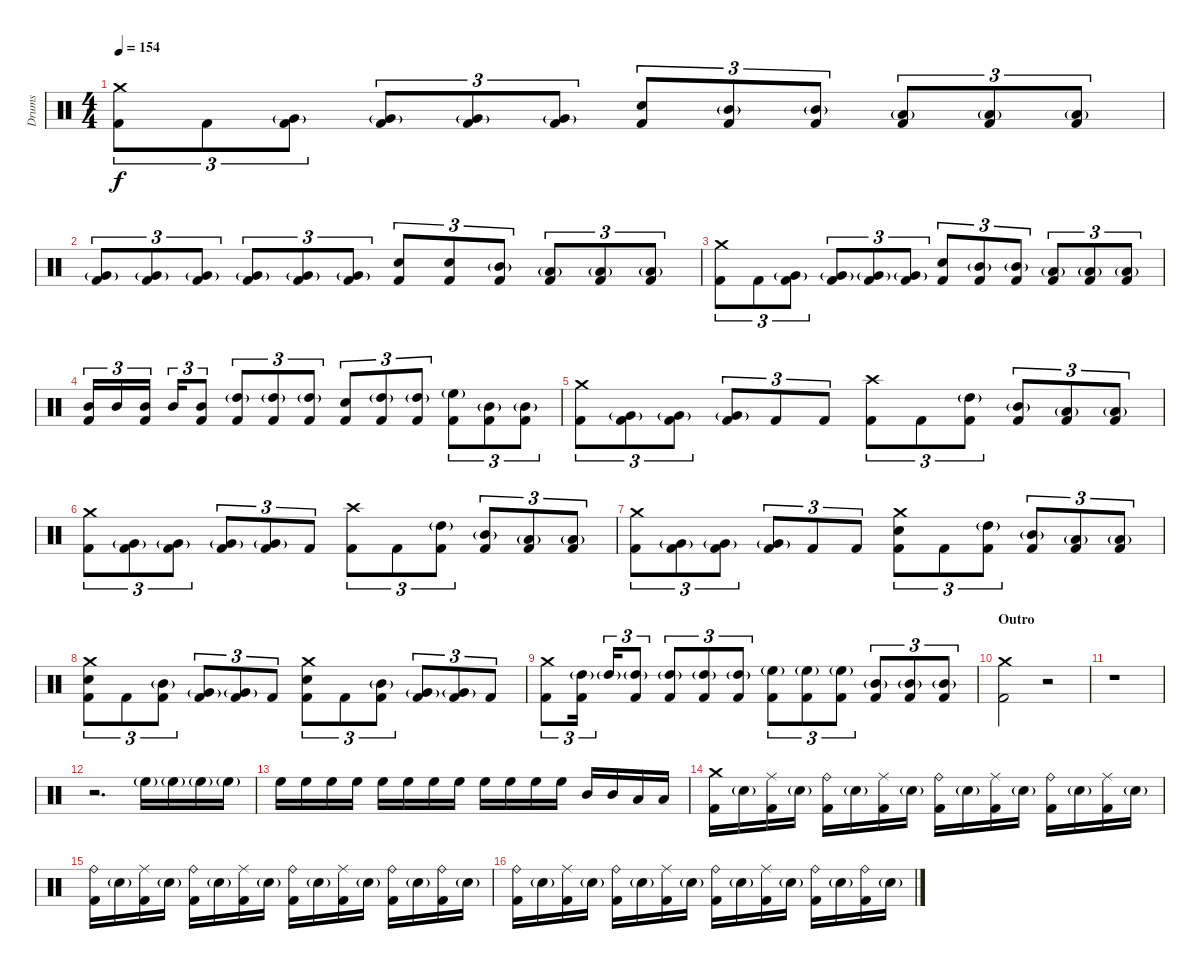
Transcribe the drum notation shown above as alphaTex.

\track ("Drums" "Drums") {instrument percussion}
\staff {score}
\articulation defaults
\ts (4 4)
\tempo 154
\clef neutral
\ks c
("Crash medium (hit)" "Kick (hit) 2").8{tu (3 2) dy f} "Kick (hit) 2".8{tu (3 2)} ("Very Low Tom (hit)"{g} "Kick (hit) 2").8{tu (3 2)} ("Very Low Tom (hit)"{g} "Kick (hit) 2").8{tu (3 2)} ("Very Low Tom (hit)"{g} "Kick (hit) 2").8{tu (3 2)} ("Very Low Tom (hit)"{g} "Kick (hit) 2").8{tu (3 2)} ("Snare (hit) 2" "Kick (hit) 2").8{tu (3 2)} ("Mid Tom (hit)"{g} "Kick (hit) 2").8{tu (3 2)} ("Mid Tom (hit)"{g} "Kick (hit) 2").8{tu (3 2)} ("Low Tom (hit)"{g} "Kick (hit) 2").8{tu (3 2)} ("Low Tom (hit)"{g} "Kick (hit) 2").8{tu (3 2)} ("Low Tom (hit)"{g} "Kick (hit) 2").8{tu (3 2)} |
("Very Low Tom (hit)"{g} "Kick (hit) 2").8{tu (3 2)} ("Very Low Tom (hit)"{g} "Kick (hit) 2").8{tu (3 2)} ("Very Low Tom (hit)"{g} "Kick (hit) 2").8{tu (3 2)} ("Very Low Tom (hit)"{g} "Kick (hit) 2").8{tu (3 2)} ("Very Low Tom (hit)"{g} "Kick (hit) 2").8{tu (3 2)} ("Very Low Tom (hit)"{g} "Kick (hit) 2").8{tu (3 2)} ("Snare (hit) 2" "Kick (hit) 2").8{tu (3 2)} ("Snare (hit) 2" "Kick (hit) 2").8{tu (3 2)} ("Mid Tom (hit)"{g} "Kick (hit) 2").8{tu (3 2)} ("Low Tom (hit)"{g} "Kick (hit) 2").8{tu (3 2)} ("Low Tom (hit)"{g} "Kick (hit) 2").8{tu (3 2)} ("Low Tom (hit)"{g} "Kick (hit) 2").8{tu (3 2)} |
("Crash medium (hit)" "Kick (hit) 2").8{tu (3 2)} "Kick (hit) 2".8{tu (3 2)} ("Very Low Tom (hit)"{g} "Kick (hit) 2").8{tu (3 2)} ("Very Low Tom (hit)"{g} "Kick (hit) 2").8{tu (3 2)} ("Very Low Tom (hit)"{g} "Kick (hit) 2").8{tu (3 2)} ("Very Low Tom (hit)"{g} "Kick (hit) 2").8{tu (3 2)} ("Snare (hit) 2" "Kick (hit) 2").8{tu (3 2)} ("Mid Tom (hit)"{g} "Kick (hit) 2").8{tu (3 2)} ("Mid Tom (hit)"{g} "Kick (hit) 2").8{tu (3 2)} ("Low Tom (hit)"{g} "Kick (hit) 2").8{tu (3 2)} ("Low Tom (hit)"{g} "Kick (hit) 2").8{tu (3 2)} ("Low Tom (hit)"{g} "Kick (hit) 2").8{tu (3 2)} |
("Mid Tom (hit)" "Kick (hit) 2").16{tu (3 2)} "Mid Tom (hit)".16{tu (3 2)} ("Mid Tom (hit)" "Kick (hit) 2").16{tu (3 2)} "Mid Tom (hit)".16{tu (3 2)} ("Mid Tom (hit)" "Kick (hit) 2").8{tu (3 2)} ("High Tom (hit)"{g} "Kick (hit) 2").8{tu (3 2)} ("High Tom (hit)"{g} "Kick (hit) 2").8{tu (3 2)} ("High Tom (hit)"{g} "Kick (hit) 2").8{tu (3 2)} ("Snare (hit) 2" "Kick (hit) 2").8{tu (3 2)} ("High Tom (hit)"{g} "Kick (hit) 2").8{tu (3 2)} ("High Tom (hit)"{g} "Kick (hit) 2").8{tu (3 2)} ("High Floor Tom (hit)"{g} "Kick (hit) 2").8{tu (3 2)} ("Mid Tom (hit)"{g} "Kick (hit) 2").8{tu (3 2)} ("Mid Tom (hit)"{g} "Kick (hit) 2").8{tu (3 2)} |
("Crash medium (hit)" "Kick (hit) 2").8{tu (3 2)} ("Very Low Tom (hit)"{g} "Kick (hit) 2").8{tu (3 2)} ("Very Low Tom (hit)"{g} "Kick (hit) 2").8{tu (3 2)} ("Very Low Tom (hit)"{g} "Kick (hit) 2").8{tu (3 2)} "Kick (hit) 2".8{tu (3 2)} "Kick (hit) 2".8{tu (3 2)} ("Crash high (hit)" "Kick (hit) 2").8{tu (3 2)} "Kick (hit) 2".8{tu (3 2)} ("High Tom (hit)"{g} "Kick (hit) 2").8{tu (3 2)} ("Mid Tom (hit)"{g} "Kick (hit) 2").8{tu (3 2)} ("Low Tom (hit)"{g} "Kick (hit) 2").8{tu (3 2)} ("Low Tom (hit)"{g} "Kick (hit) 2").8{tu (3 2)} |
("Crash medium (hit)" "Kick (hit) 2").8{tu (3 2)} ("Very Low Tom (hit)"{g} "Kick (hit) 2").8{tu (3 2)} ("Very Low Tom (hit)"{g} "Kick (hit) 2").8{tu (3 2)} ("Very Low Tom (hit)"{g} "Kick (hit) 2").8{tu (3 2)} ("Very Low Tom (hit)"{g} "Kick (hit) 2").8{tu (3 2)} "Kick (hit) 2".8{tu (3 2)} ("Crash high (hit)" "Kick (hit) 2").8{tu (3 2)} "Kick (hit) 2".8{tu (3 2)} ("High Tom (hit)"{g} "Kick (hit) 2").8{tu (3 2)} ("Mid Tom (hit)"{g} "Kick (hit) 2").8{tu (3 2)} ("Low Tom (hit)"{g} "Kick (hit) 2").8{tu (3 2)} ("Low Tom (hit)"{g} "Kick (hit) 2").8{tu (3 2)} |
("Crash medium (hit)" "Kick (hit) 2").8{tu (3 2)} ("Very Low Tom (hit)"{g} "Kick (hit) 2").8{tu (3 2)} ("Very Low Tom (hit)"{g} "Kick (hit) 2").8{tu (3 2)} ("Very Low Tom (hit)"{g} "Kick (hit) 2").8{tu (3 2)} "Kick (hit) 2".8{tu (3 2)} "Kick (hit) 2".8{tu (3 2)} ("Crash medium (hit)" "Snare (hit) 2" "Kick (hit) 2").8{tu (3 2)} "Kick (hit) 2".8{tu (3 2)} ("High Tom (hit)"{g} "Kick (hit) 2").8{tu (3 2)} ("Mid Tom (hit)"{g} "Kick (hit) 2").8{tu (3 2)} ("Low Tom (hit)"{g} "Kick (hit) 2").8{tu (3 2)} ("Low Tom (hit)"{g} "Kick (hit) 2").8{tu (3 2)} |
("Crash medium (hit)" "Snare (hit) 2" "Kick (hit) 2").8{tu (3 2)} "Kick (hit) 2".8{tu (3 2)} ("Mid Tom (hit)"{g} "Kick (hit) 2").8{tu (3 2)} ("Very Low Tom (hit)"{g} "Kick (hit) 2").8{tu (3 2)} ("Very Low Tom (hit)"{g} "Kick (hit) 2").8{tu (3 2)} "Kick (hit) 2".8{tu (3 2)} ("Crash medium (hit)" "Snare (hit) 2" "Kick (hit) 2").8{tu (3 2)} "Kick (hit) 2".8{tu (3 2)} ("Mid Tom (hit)"{g} "Kick (hit) 2").8{tu (3 2)} ("Very Low Tom (hit)"{g} "Kick (hit) 2").8{tu (3 2)} ("Very Low Tom (hit)"{g} "Kick (hit) 2").8{tu (3 2)} "Kick (hit) 2".8{tu (3 2)} |
("Crash medium (hit)" "Kick (hit) 2").8{tu (3 2)} ("High Tom (hit)"{g} "Kick (hit) 2").16{tu (3 2)} "High Tom (hit)"{g}.16{tu (3 2)} ("High Tom (hit)"{g} "Kick (hit) 2").8{tu (3 2)} ("High Tom (hit)"{g} "Kick (hit) 2").8{tu (3 2)} ("High Tom (hit)"{g} "Kick (hit) 2").8{tu (3 2)} ("High Tom (hit)"{g} "Kick (hit) 2").8{tu (3 2)} ("High Floor Tom (hit)"{g} "Kick (hit) 2").8{tu (3 2)} ("High Floor Tom (hit)"{g} "Kick (hit) 2").8{tu (3 2)} ("High Floor Tom (hit)"{g} "Kick (hit) 2").8{tu (3 2)} ("Mid Tom (hit)"{g} "Kick (hit) 2").8{tu (3 2)} ("Mid Tom (hit)"{g} "Kick (hit) 2").8{tu (3 2)} ("Mid Tom (hit)"{g} "Kick (hit) 2").8{tu (3 2)} |
\section ("" "Outro")
("Crash medium (hit)" "Kick (hit) 2").2 r.2 |
r.1 |
r.2{d} "High Floor Tom (hit)"{g}.16 "High Floor Tom (hit)"{g}.16 "High Floor Tom (hit)"{g}.16 "High Floor Tom (hit)"{g}.16 |
"High Floor Tom (hit)".16 "High Floor Tom (hit)".16 "High Floor Tom (hit)".16 "High Floor Tom (hit)".16 "High Floor Tom (hit)".16 "High Floor Tom (hit)".16 "High Floor Tom (hit)".16 "High Floor Tom (hit)".16 "High Floor Tom (hit)".16 "High Floor Tom (hit)".16 "High Floor Tom (hit)".16 "High Floor Tom (hit)".16 "Mid Tom (hit)".16 "Mid Tom (hit)".16 "Low Tom (hit)".16 "Low Tom (hit)".16 |
("Crash medium (hit)" "Kick (hit) 2").16 "Snare (hit) 2"{g}.16 ("Ride (middle)" "Kick (hit) 2").16 "Snare (hit) 2"{g}.16 ("Ride (bell)" "Kick (hit) 2").16 "Snare (hit) 2"{g}.16 ("Ride (middle)" "Kick (hit) 2").16 "Snare (hit) 2"{g}.16 ("Ride (bell)" "Kick (hit) 2").16 "Snare (hit) 2"{g}.16 ("Ride (middle)" "Kick (hit) 2").16 "Snare (hit) 2"{g}.16 ("Ride (bell)" "Kick (hit) 2").16 "Snare (hit) 2"{g}.16 ("Ride (middle)" "Kick (hit) 2").16 "Snare (hit) 2"{g}.16 |
("Ride (bell)" "Kick (hit) 2").16 "Snare (hit) 2"{g}.16 ("Ride (middle)" "Kick (hit) 2").16 "Snare (hit) 2"{g}.16 ("Ride (bell)" "Kick (hit) 2").16 "Snare (hit) 2"{g}.16 ("Ride (middle)" "Kick (hit) 2").16 "Snare (hit) 2"{g}.16 ("Ride (bell)" "Kick (hit) 2").16 "Snare (hit) 2"{g}.16 ("Ride (middle)" "Kick (hit) 2").16 "Snare (hit) 2"{g}.16 ("Ride (bell)" "Kick (hit) 2").16 "Snare (hit) 2"{g}.16 ("Ride (bell)" "Kick (hit) 2").16 "Snare (hit) 2"{g}.16 |
("Ride (bell)" "Kick (hit) 2").16 "Snare (hit) 2"{g}.16 ("Ride (middle)" "Kick (hit) 2").16 "Snare (hit) 2"{g}.16 ("Ride (bell)" "Kick (hit) 2").16 "Snare (hit) 2"{g}.16 ("Ride (middle)" "Kick (hit) 2").16 "Snare (hit) 2"{g}.16 ("Ride (bell)" "Kick (hit) 2").16 "Snare (hit) 2"{g}.16 ("Ride (middle)" "Kick (hit) 2").16 "Snare (hit) 2"{g}.16 ("Ride (bell)" "Kick (hit) 2").16 "Snare (hit) 2"{g}.16 ("Ride (bell)" "Kick (hit) 2").16 "Snare (hit) 2"{g}.16
